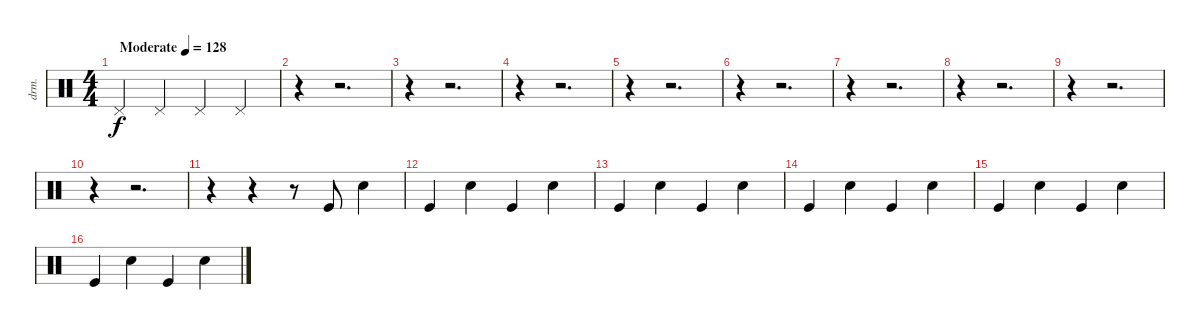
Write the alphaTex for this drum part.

\defaultSystemsLayout 4
\bracketExtendMode groupsimilarinstruments
\otherSystemsTrackNameOrientation horizontal
\track ("Drumkit" "drm.") {instrument percussion}
\staff {score}
\articulation defaults
\ts (4 4)
\beaming (8 2 2 2 2)
\tempo (128 "Moderate")
\clef neutral
\ks c "Pedal Hi-Hat (hit)".4{dy f} "Pedal Hi-Hat (hit)".4 "Pedal Hi-Hat (hit)".4 "Pedal Hi-Hat (hit)".4
|
r.4 r.2{d} |
r.4 r.2{d} |
r.4 r.2{d} |
r.4 r.2{d} |
r.4 r.2{d} |
r.4 r.2{d} |
r.4 r.2{d} |
r.4 r.2{d} |
r.4 r.2{d} |
r.4 r.4 r.8 "Kick (hit)".8 "Snare (hit) 2".4 |
"Kick (hit)".4 "Snare (hit) 2".4 "Kick (hit)".4 "Snare (hit) 2".4 |
"Kick (hit)".4 "Snare (hit) 2".4 "Kick (hit)".4 "Snare (hit) 2".4 |
"Kick (hit)".4 "Snare (hit) 2".4 "Kick (hit)".4 "Snare (hit) 2".4 |
"Kick (hit)".4 "Snare (hit) 2".4 "Kick (hit)".4 "Snare (hit) 2".4 |
"Kick (hit)".4 "Snare (hit) 2".4 "Kick (hit)".4 "Snare (hit) 2".4
